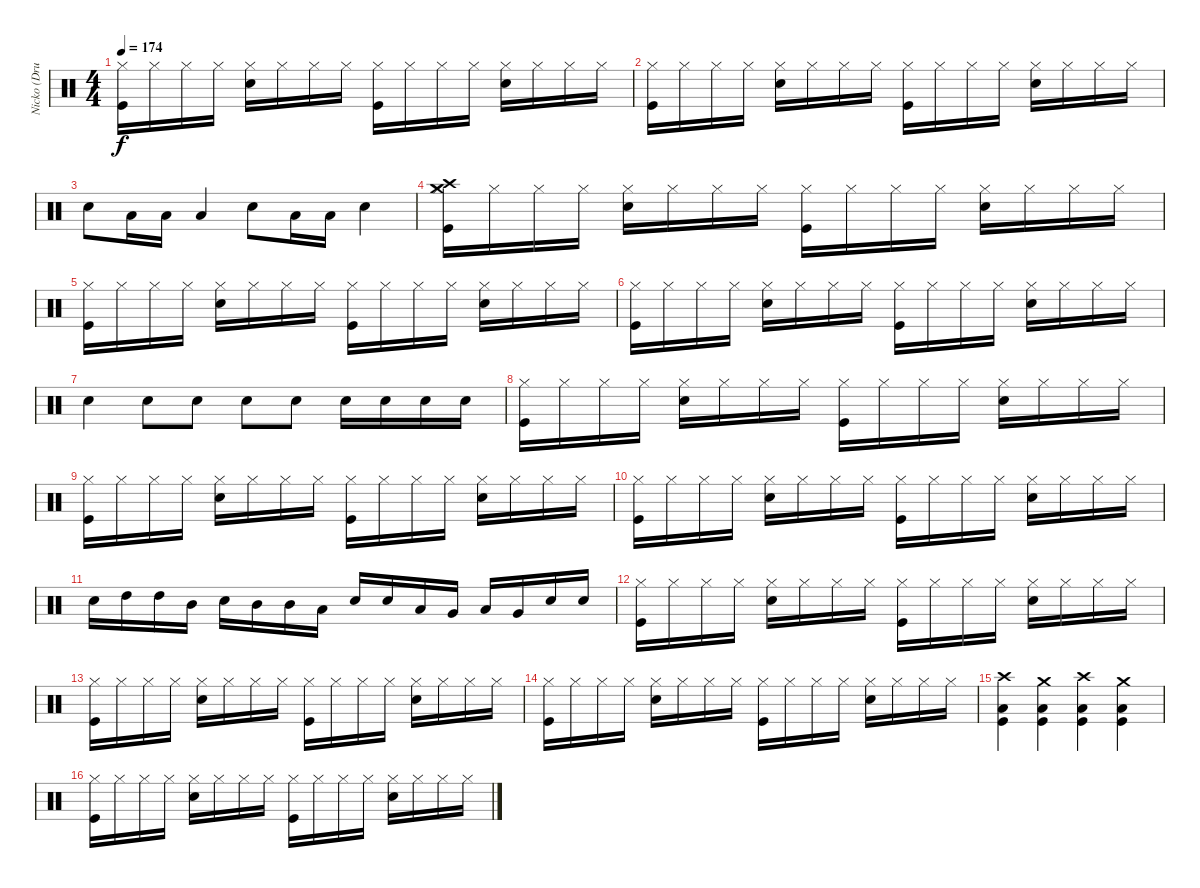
\track ("Nicko (Drums)" "Nicko (Dru") {instrument percussion}
\staff {score}
\articulation defaults
\ts (4 4)
\tempo 174
\clef neutral
\ks c
("Hi-Hat (closed)" "Kick (hit)").16{dy f} "Hi-Hat (closed)".16 "Hi-Hat (closed)".16 "Hi-Hat (closed)".16 ("Hi-Hat (closed)" "Electric Snare (hit)").16 "Hi-Hat (closed)".16 "Hi-Hat (closed)".16 "Hi-Hat (closed)".16 ("Hi-Hat (closed)" "Kick (hit)").16 "Hi-Hat (closed)".16 "Hi-Hat (closed)".16 "Hi-Hat (closed)".16 ("Hi-Hat (closed)" "Electric Snare (hit)").16 "Hi-Hat (closed)".16 "Hi-Hat (closed)".16 "Hi-Hat (closed)".16 |
("Hi-Hat (closed)" "Kick (hit)").16 "Hi-Hat (closed)".16 "Hi-Hat (closed)".16 "Hi-Hat (closed)".16 ("Hi-Hat (closed)" "Electric Snare (hit)").16 "Hi-Hat (closed)".16 "Hi-Hat (closed)".16 "Hi-Hat (closed)".16 ("Hi-Hat (closed)" "Kick (hit)").16 "Hi-Hat (closed)".16 "Hi-Hat (closed)".16 "Hi-Hat (closed)".16 ("Hi-Hat (closed)" "Electric Snare (hit)").16 "Hi-Hat (closed)".16 "Hi-Hat (closed)".16 "Hi-Hat (closed)".16 |
"Electric Snare (hit)".8 "Low Tom (hit)".16 "Low Tom (hit)".16 "Low Tom (hit)".4 "Electric Snare (hit)".8 "Low Tom (hit)".16 "Low Tom (hit)".16 "Electric Snare (hit)".4 |
("Hi-Hat (closed)" "Crash high (hit)" "Crash medium (hit)" "Kick (hit)").16 "Hi-Hat (closed)".16 "Hi-Hat (closed)".16 "Hi-Hat (closed)".16 ("Hi-Hat (closed)" "Electric Snare (hit)").16 "Hi-Hat (closed)".16 "Hi-Hat (closed)".16 "Hi-Hat (closed)".16 ("Hi-Hat (closed)" "Kick (hit)").16 "Hi-Hat (closed)".16 "Hi-Hat (closed)".16 "Hi-Hat (closed)".16 ("Hi-Hat (closed)" "Electric Snare (hit)").16 "Hi-Hat (closed)".16 "Hi-Hat (closed)".16 "Hi-Hat (closed)".16 |
("Hi-Hat (closed)" "Kick (hit)").16 "Hi-Hat (closed)".16 "Hi-Hat (closed)".16 "Hi-Hat (closed)".16 ("Hi-Hat (closed)" "Electric Snare (hit)").16 "Hi-Hat (closed)".16 "Hi-Hat (closed)".16 "Hi-Hat (closed)".16 ("Hi-Hat (closed)" "Kick (hit)").16 "Hi-Hat (closed)".16 "Hi-Hat (closed)".16 "Hi-Hat (closed)".16 ("Hi-Hat (closed)" "Electric Snare (hit)").16 "Hi-Hat (closed)".16 "Hi-Hat (closed)".16 "Hi-Hat (closed)".16 |
("Hi-Hat (closed)" "Kick (hit)").16 "Hi-Hat (closed)".16 "Hi-Hat (closed)".16 "Hi-Hat (closed)".16 ("Hi-Hat (closed)" "Electric Snare (hit)").16 "Hi-Hat (closed)".16 "Hi-Hat (closed)".16 "Hi-Hat (closed)".16 ("Hi-Hat (closed)" "Kick (hit)").16 "Hi-Hat (closed)".16 "Hi-Hat (closed)".16 "Hi-Hat (closed)".16 ("Hi-Hat (closed)" "Electric Snare (hit)").16 "Hi-Hat (closed)".16 "Hi-Hat (closed)".16 "Hi-Hat (closed)".16 |
"Snare (hit) 2".4 "Snare (hit) 2".8 "Snare (hit) 2".8 "Snare (hit) 2".8 "Snare (hit) 2".8 "Snare (hit) 2".16 "Snare (hit) 2".16 "Snare (hit) 2".16 "Snare (hit) 2".16 |
("Hi-Hat (closed)" "Kick (hit)").16 "Hi-Hat (closed)".16 "Hi-Hat (closed)".16 "Hi-Hat (closed)".16 ("Hi-Hat (closed)" "Electric Snare (hit)").16 "Hi-Hat (closed)".16 "Hi-Hat (closed)".16 "Hi-Hat (closed)".16 ("Hi-Hat (closed)" "Kick (hit)").16 "Hi-Hat (closed)".16 "Hi-Hat (closed)".16 "Hi-Hat (closed)".16 ("Hi-Hat (closed)" "Electric Snare (hit)").16 "Hi-Hat (closed)".16 "Hi-Hat (closed)".16 "Hi-Hat (closed)".16 |
("Hi-Hat (closed)" "Kick (hit)").16 "Hi-Hat (closed)".16 "Hi-Hat (closed)".16 "Hi-Hat (closed)".16 ("Hi-Hat (closed)" "Electric Snare (hit)").16 "Hi-Hat (closed)".16 "Hi-Hat (closed)".16 "Hi-Hat (closed)".16 ("Hi-Hat (closed)" "Kick (hit)").16 "Hi-Hat (closed)".16 "Hi-Hat (closed)".16 "Hi-Hat (closed)".16 ("Hi-Hat (closed)" "Electric Snare (hit)").16 "Hi-Hat (closed)".16 "Hi-Hat (closed)".16 "Hi-Hat (closed)".16 |
("Hi-Hat (closed)" "Kick (hit)").16 "Hi-Hat (closed)".16 "Hi-Hat (closed)".16 "Hi-Hat (closed)".16 ("Hi-Hat (closed)" "Electric Snare (hit)").16 "Hi-Hat (closed)".16 "Hi-Hat (closed)".16 "Hi-Hat (closed)".16 ("Hi-Hat (closed)" "Kick (hit)").16 "Hi-Hat (closed)".16 "Hi-Hat (closed)".16 "Hi-Hat (closed)".16 ("Hi-Hat (closed)" "Electric Snare (hit)").16 "Hi-Hat (closed)".16 "Hi-Hat (closed)".16 "Hi-Hat (closed)".16 |
"Electric Snare (hit)".16 "High Tom (hit)".16 "High Tom (hit)".16 "Mid Tom (hit)".16 "Electric Snare (hit)".16 "Mid Tom (hit)".16 "Mid Tom (hit)".16 "Low Tom (hit)".16 "Electric Snare (hit)".16 "Electric Snare (hit)".16 "Low Tom (hit)".16 "Very Low Tom (hit)".16 "Low Tom (hit)".16 "Very Low Tom (hit)".16 "Electric Snare (hit)".16 "Electric Snare (hit)".16 |
("Hi-Hat (closed)" "Kick (hit)").16 "Hi-Hat (closed)".16 "Hi-Hat (closed)".16 "Hi-Hat (closed)".16 ("Hi-Hat (closed)" "Electric Snare (hit)").16 "Hi-Hat (closed)".16 "Hi-Hat (closed)".16 "Hi-Hat (closed)".16 ("Hi-Hat (closed)" "Kick (hit)").16 "Hi-Hat (closed)".16 "Hi-Hat (closed)".16 "Hi-Hat (closed)".16 ("Hi-Hat (closed)" "Electric Snare (hit)").16 "Hi-Hat (closed)".16 "Hi-Hat (closed)".16 "Hi-Hat (closed)".16 |
("Hi-Hat (closed)" "Kick (hit)").16 "Hi-Hat (closed)".16 "Hi-Hat (closed)".16 "Hi-Hat (closed)".16 ("Hi-Hat (closed)" "Electric Snare (hit)").16 "Hi-Hat (closed)".16 "Hi-Hat (closed)".16 "Hi-Hat (closed)".16 ("Hi-Hat (closed)" "Kick (hit)").16 "Hi-Hat (closed)".16 "Hi-Hat (closed)".16 "Hi-Hat (closed)".16 ("Hi-Hat (closed)" "Electric Snare (hit)").16 "Hi-Hat (closed)".16 "Hi-Hat (closed)".16 "Hi-Hat (closed)".16 |
("Hi-Hat (closed)" "Kick (hit)").16 "Hi-Hat (closed)".16 "Hi-Hat (closed)".16 "Hi-Hat (closed)".16 ("Hi-Hat (closed)" "Electric Snare (hit)").16 "Hi-Hat (closed)".16 "Hi-Hat (closed)".16 "Hi-Hat (closed)".16 ("Hi-Hat (closed)" "Kick (hit)").16 "Hi-Hat (closed)".16 "Hi-Hat (closed)".16 "Hi-Hat (closed)".16 ("Hi-Hat (closed)" "Electric Snare (hit)").16 "Hi-Hat (closed)".16 "Hi-Hat (closed)".16 "Hi-Hat (closed)".16 |
("Crash high (hit)" "Low Tom (hit)" "Kick (hit)").4 ("Crash medium (hit)" "Low Tom (hit)" "Kick (hit)").4 ("Crash high (hit)" "Low Tom (hit)" "Kick (hit)").4 ("Crash medium (hit)" "Low Tom (hit)" "Kick (hit)").4 |
("Hi-Hat (closed)" "Kick (hit)").16 "Hi-Hat (closed)".16 "Hi-Hat (closed)".16 "Hi-Hat (closed)".16 ("Hi-Hat (closed)" "Electric Snare (hit)").16 "Hi-Hat (closed)".16 "Hi-Hat (closed)".16 "Hi-Hat (closed)".16 ("Hi-Hat (closed)" "Kick (hit)").16 "Hi-Hat (closed)".16 "Hi-Hat (closed)".16 "Hi-Hat (closed)".16 ("Hi-Hat (closed)" "Electric Snare (hit)").16 "Hi-Hat (closed)".16 "Hi-Hat (closed)".16 "Hi-Hat (closed)".16
